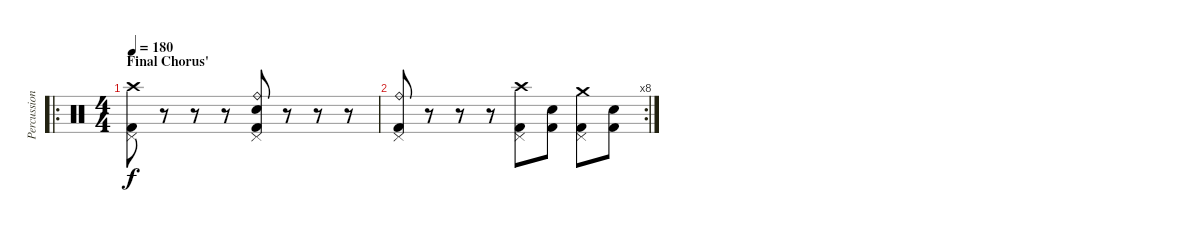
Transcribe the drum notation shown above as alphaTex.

\track ("Percussion" "Percussion") {instrument percussion}
\staff {score}
\articulation defaults
\ro
\ts (4 4)
\section ("" "Final Chorus'")
\tempo 180
\clef neutral
\ks c
("Crash high (hit)" "Pedal Hi-Hat (hit)" "Kick (hit) 2").8{dy f} r.8 r.8 r.8 ("Ride (bell)" "Pedal Hi-Hat (hit)" "Electric Snare (hit)" "Kick (hit) 2").8 r.8 r.8 r.8 |
\rc 8
("Ride (bell)" "Pedal Hi-Hat (hit)" "Kick (hit) 2").8 r.8 r.8 r.8 ("Crash high (hit)" "Pedal Hi-Hat (hit)" "Kick (hit) 2").8 ("Electric Snare (hit)" "Kick (hit) 2").8 ("Crash medium (hit)" "Pedal Hi-Hat (hit)" "Kick (hit) 2").8 ("Electric Snare (hit)" "Kick (hit) 2").8
